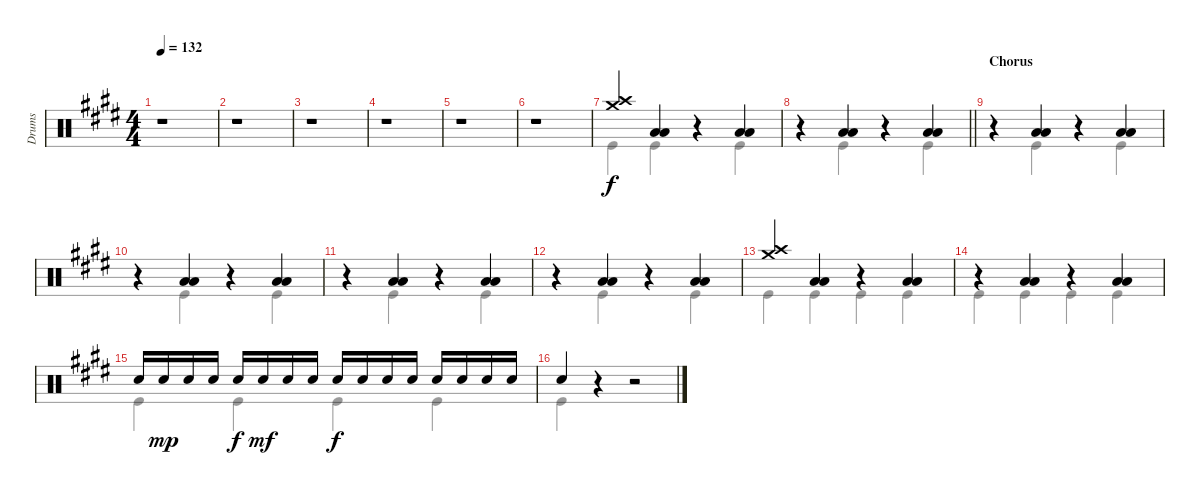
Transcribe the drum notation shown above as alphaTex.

\track ("Drums" "Drums") {instrument percussion}
\staff {score}
\articulation defaults
\voice
\ts (4 4)
\tempo 132
\clef neutral
\ks c#minor
r.1{dy f} |
r.1 |
r.1 |
r.1 |
r.1 |
r.1 |
("Crash medium (hit)" "Crash high (hit)").4 ("Low Tom (hit)" "Low Floor Tom (hit)").4 r.4 ("Low Tom (hit)" "Low Floor Tom (hit)").4 |
\barLineRight lightlight
r.4 ("Low Tom (hit)" "Low Floor Tom (hit)").4 r.4 ("Low Tom (hit)" "Low Floor Tom (hit)").4 |
\section ("" "Chorus")
r.4 ("Low Tom (hit)" "Low Floor Tom (hit)").4 r.4 ("Low Tom (hit)" "Low Floor Tom (hit)").4 |
r.4 ("Low Tom (hit)" "Low Floor Tom (hit)").4 r.4 ("Low Tom (hit)" "Low Floor Tom (hit)").4 |
r.4 ("Low Tom (hit)" "Low Floor Tom (hit)").4 r.4 ("Low Tom (hit)" "Low Floor Tom (hit)").4 |
r.4 ("Low Tom (hit)" "Low Floor Tom (hit)").4 r.4 ("Low Tom (hit)" "Low Floor Tom (hit)").4 |
("Crash medium (hit)" "Crash high (hit)").4 ("Low Tom (hit)" "Low Floor Tom (hit)").4 r.4 ("Low Tom (hit)" "Low Floor Tom (hit)").4 |
r.4 ("Low Tom (hit)" "Low Floor Tom (hit)").4 r.4 ("Low Tom (hit)" "Low Floor Tom (hit)").4 |
"Electric Snare (hit)".16 "Electric Snare (hit)".16{dy mp} "Electric Snare (hit)".16 "Electric Snare (hit)".16 "Electric Snare (hit)".16{dy f} "Electric Snare (hit)".16{dy mf} "Electric Snare (hit)".16 "Electric Snare (hit)".16 "Electric Snare (hit)".16{dy f} "Electric Snare (hit)".16 "Electric Snare (hit)".16 "Electric Snare (hit)".16 "Electric Snare (hit)".16 "Electric Snare (hit)".16 "Electric Snare (hit)".16 "Electric Snare (hit)".16 |
"Electric Snare (hit)".4 r.4 r.2
\voice
\clef neutral
\ottava regular
\simile none
\ks c#minor
r.1{dy f} |
r.1 |
r.1 |
r.1 |
r.1 |
r.1 |
"Kick (hit)".4 "Kick (hit)".4 r.4 "Kick (hit)".4 |
\barLineRight lightlight
r.4 "Kick (hit)".4 r.4 "Kick (hit)".4 |
r.4 "Kick (hit)".4 r.4 "Kick (hit)".4 |
r.4 "Kick (hit)".4 r.4 "Kick (hit)".4 |
r.4 "Kick (hit)".4 r.4 "Kick (hit)".4 |
r.4 "Kick (hit)".4 r.4 "Kick (hit)".4 |
"Kick (hit)".4 "Kick (hit)".4 "Kick (hit)".4 "Kick (hit)".4 |
"Kick (hit)".4 "Kick (hit)".4 "Kick (hit)".4 "Kick (hit)".4 |
"Kick (hit)".4 "Kick (hit)".4 "Kick (hit)".4 "Kick (hit)".4 |
"Kick (hit)".4 r.4 r.2
